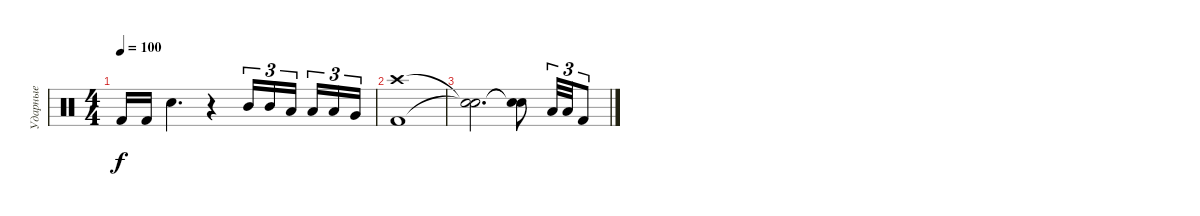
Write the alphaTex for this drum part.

\track ("Ударные" "Ударные") {instrument percussion}
\staff {score}
\articulation defaults
\ts (4 4)
\tempo 100
\clef neutral
\ks c "Kick (hit) 2".16{dy f} "Kick (hit) 2".16 "Snare (hit) 2".4{d}
r.4 "Mid Tom (hit)".16{tu (3 2)} "Mid Tom (hit)".16{tu (3 2)} "Low Tom (hit)".16{tu (3 2) beam splitsecondary} "Low Tom (hit)".16{tu (3 2)} "Low Tom (hit)".16{tu (3 2)} "Very Low Tom (hit)".16{tu (3 2)} |
("Crash high (hit)" "Kick (hit) 2").1 |
("Snare (hit)"{t} "Snare (hit)"{t}).2{d} ("Snare (hit)"{t} "Snare (hit)"{t}).8 "Low Tom (hit)".32{tu (3 2)} "Low Tom (hit)".32{tu (3 2)} "Kick (hit) 2".8{tu (3 2)}
